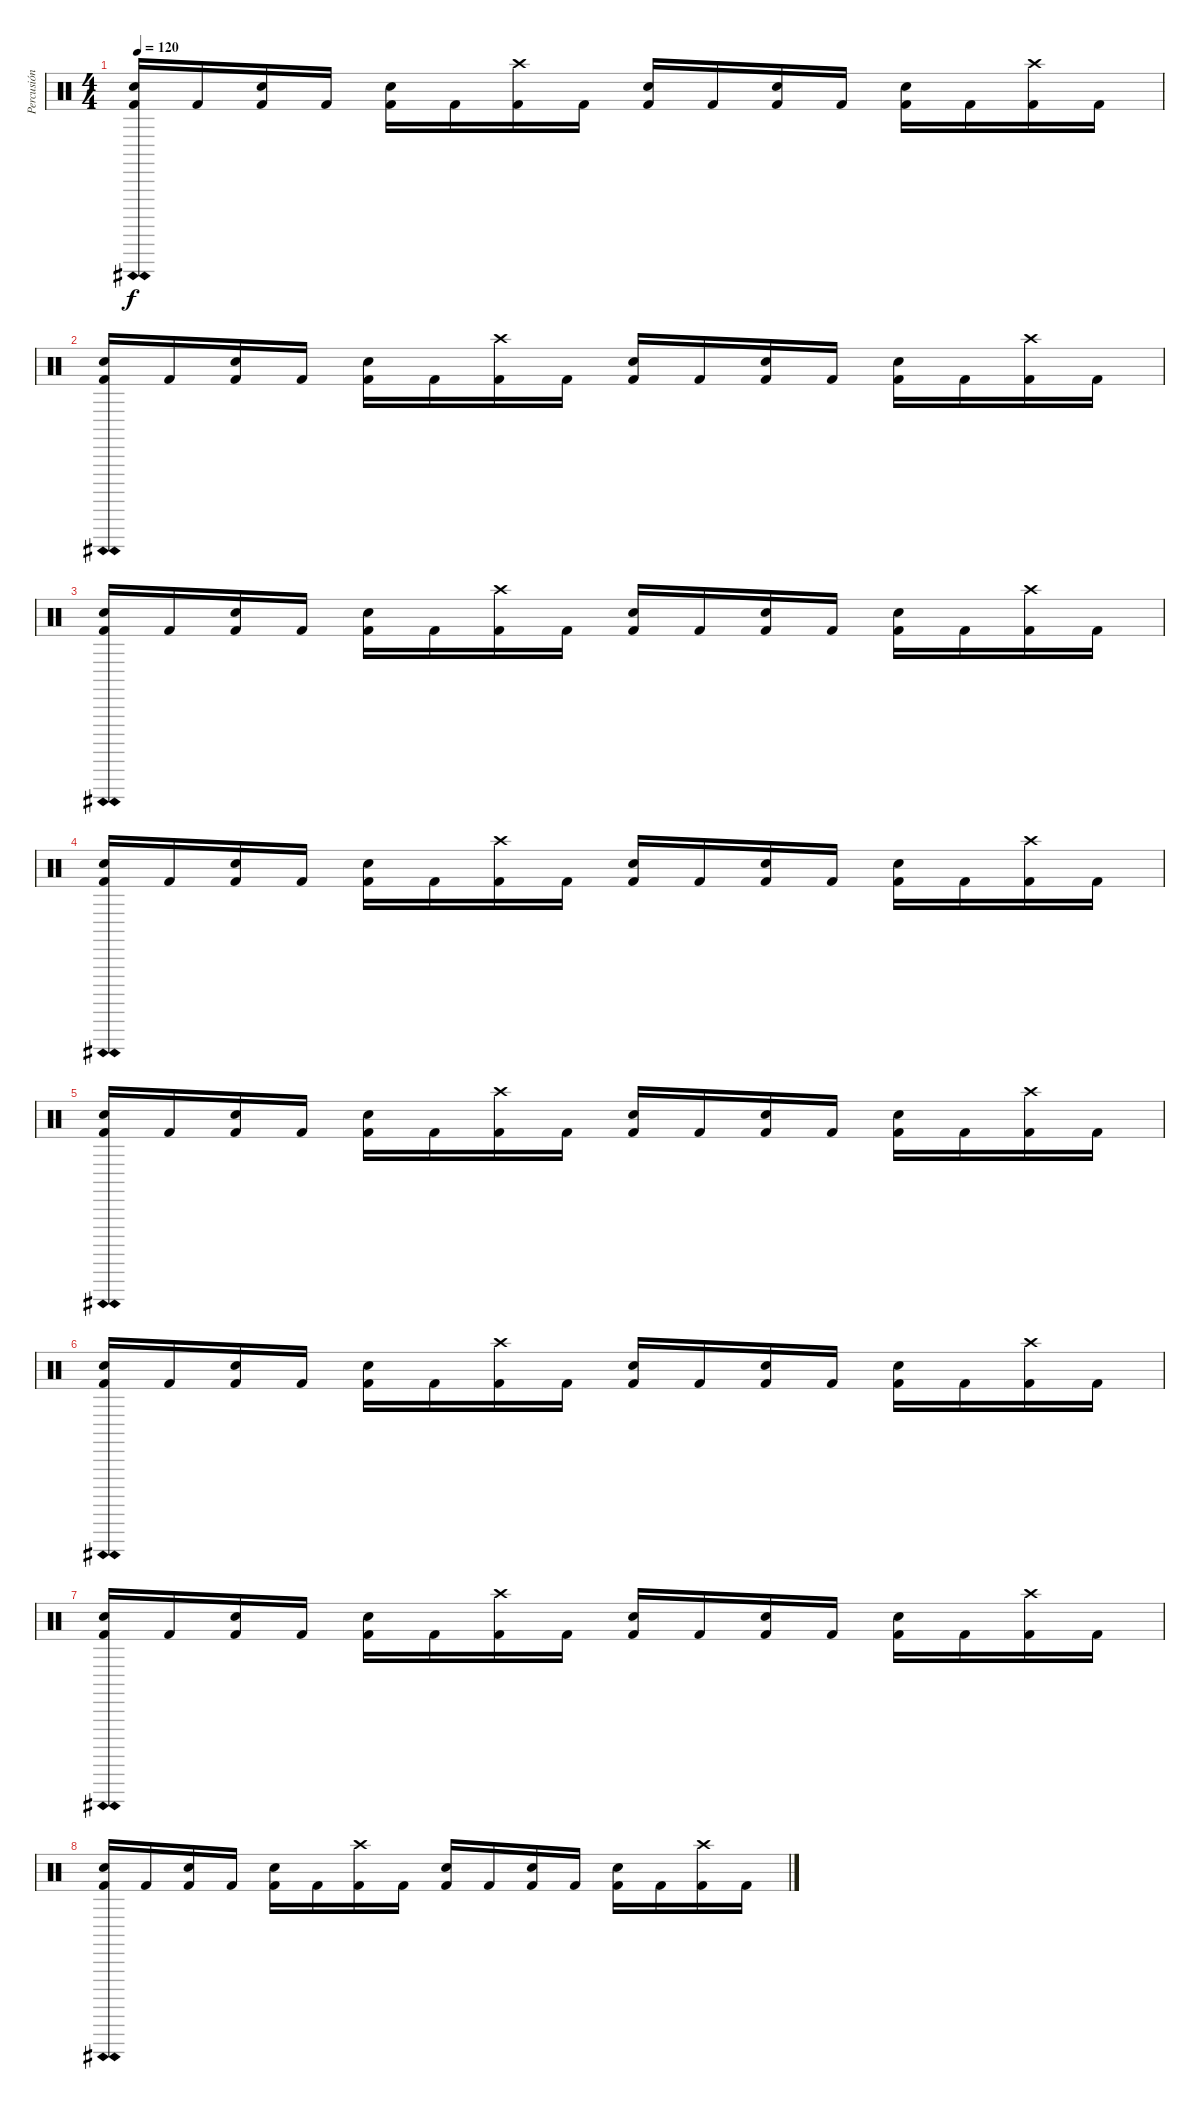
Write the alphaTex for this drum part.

\track ("Percusión" "Percusión") {instrument percussion}
\staff {score}
\articulation defaults
\ts (4 4)
\tempo 120
\clef neutral
\ks c
("Kick (hit) 2"{ah 12} "Electric Snare (hit)"{ah 12}).16{dy f} "Kick (hit) 2".16 ("Kick (hit) 2" "Electric Snare (hit)").16 "Kick (hit) 2".16 ("Kick (hit) 2" "Electric Snare (hit)").16 "Kick (hit) 2".16 ("Crash high (hit)" "Kick (hit) 2").16 "Kick (hit) 2".16 ("Kick (hit) 2" "Electric Snare (hit)").16 "Kick (hit) 2".16 ("Kick (hit) 2" "Electric Snare (hit)").16 "Kick (hit) 2".16 ("Kick (hit) 2" "Electric Snare (hit)").16 "Kick (hit) 2".16 ("Crash high (hit)" "Kick (hit) 2").16 "Kick (hit) 2".16 |
("Kick (hit) 2"{ah 12} "Electric Snare (hit)"{ah 12}).16 "Kick (hit) 2".16 ("Kick (hit) 2" "Electric Snare (hit)").16 "Kick (hit) 2".16 ("Kick (hit) 2" "Electric Snare (hit)").16 "Kick (hit) 2".16 ("Crash high (hit)" "Kick (hit) 2").16 "Kick (hit) 2".16 ("Kick (hit) 2" "Electric Snare (hit)").16 "Kick (hit) 2".16 ("Kick (hit) 2" "Electric Snare (hit)").16 "Kick (hit) 2".16 ("Kick (hit) 2" "Electric Snare (hit)").16 "Kick (hit) 2".16 ("Crash high (hit)" "Kick (hit) 2").16 "Kick (hit) 2".16 |
("Kick (hit) 2"{ah 12} "Electric Snare (hit)"{ah 12}).16 "Kick (hit) 2".16 ("Kick (hit) 2" "Electric Snare (hit)").16 "Kick (hit) 2".16 ("Kick (hit) 2" "Electric Snare (hit)").16 "Kick (hit) 2".16 ("Crash high (hit)" "Kick (hit) 2").16 "Kick (hit) 2".16 ("Kick (hit) 2" "Electric Snare (hit)").16 "Kick (hit) 2".16 ("Kick (hit) 2" "Electric Snare (hit)").16 "Kick (hit) 2".16 ("Kick (hit) 2" "Electric Snare (hit)").16 "Kick (hit) 2".16 ("Crash high (hit)" "Kick (hit) 2").16 "Kick (hit) 2".16 |
("Kick (hit) 2"{ah 12} "Electric Snare (hit)"{ah 12}).16 "Kick (hit) 2".16 ("Kick (hit) 2" "Electric Snare (hit)").16 "Kick (hit) 2".16 ("Kick (hit) 2" "Electric Snare (hit)").16 "Kick (hit) 2".16 ("Crash high (hit)" "Kick (hit) 2").16 "Kick (hit) 2".16 ("Kick (hit) 2" "Electric Snare (hit)").16 "Kick (hit) 2".16 ("Kick (hit) 2" "Electric Snare (hit)").16 "Kick (hit) 2".16 ("Kick (hit) 2" "Electric Snare (hit)").16 "Kick (hit) 2".16 ("Crash high (hit)" "Kick (hit) 2").16 "Kick (hit) 2".16 |
("Kick (hit) 2"{ah 12} "Electric Snare (hit)"{ah 12}).16 "Kick (hit) 2".16 ("Kick (hit) 2" "Electric Snare (hit)").16 "Kick (hit) 2".16 ("Kick (hit) 2" "Electric Snare (hit)").16 "Kick (hit) 2".16 ("Crash high (hit)" "Kick (hit) 2").16 "Kick (hit) 2".16 ("Kick (hit) 2" "Electric Snare (hit)").16 "Kick (hit) 2".16 ("Kick (hit) 2" "Electric Snare (hit)").16 "Kick (hit) 2".16 ("Kick (hit) 2" "Electric Snare (hit)").16 "Kick (hit) 2".16 ("Crash high (hit)" "Kick (hit) 2").16 "Kick (hit) 2".16 |
("Kick (hit) 2"{ah 12} "Electric Snare (hit)"{ah 12}).16 "Kick (hit) 2".16 ("Kick (hit) 2" "Electric Snare (hit)").16 "Kick (hit) 2".16 ("Kick (hit) 2" "Electric Snare (hit)").16 "Kick (hit) 2".16 ("Crash high (hit)" "Kick (hit) 2").16 "Kick (hit) 2".16 ("Kick (hit) 2" "Electric Snare (hit)").16 "Kick (hit) 2".16 ("Kick (hit) 2" "Electric Snare (hit)").16 "Kick (hit) 2".16 ("Kick (hit) 2" "Electric Snare (hit)").16 "Kick (hit) 2".16 ("Crash high (hit)" "Kick (hit) 2").16 "Kick (hit) 2".16 |
("Kick (hit) 2"{ah 12} "Electric Snare (hit)"{ah 12}).16 "Kick (hit) 2".16 ("Kick (hit) 2" "Electric Snare (hit)").16 "Kick (hit) 2".16 ("Kick (hit) 2" "Electric Snare (hit)").16 "Kick (hit) 2".16 ("Crash high (hit)" "Kick (hit) 2").16 "Kick (hit) 2".16 ("Kick (hit) 2" "Electric Snare (hit)").16 "Kick (hit) 2".16 ("Kick (hit) 2" "Electric Snare (hit)").16 "Kick (hit) 2".16 ("Kick (hit) 2" "Electric Snare (hit)").16 "Kick (hit) 2".16 ("Crash high (hit)" "Kick (hit) 2").16 "Kick (hit) 2".16 |
("Kick (hit) 2"{ah 12} "Electric Snare (hit)"{ah 12}).16 "Kick (hit) 2".16 ("Kick (hit) 2" "Electric Snare (hit)").16 "Kick (hit) 2".16 ("Kick (hit) 2" "Electric Snare (hit)").16 "Kick (hit) 2".16 ("Crash high (hit)" "Kick (hit) 2").16 "Kick (hit) 2".16 ("Kick (hit) 2" "Electric Snare (hit)").16 "Kick (hit) 2".16 ("Kick (hit) 2" "Electric Snare (hit)").16 "Kick (hit) 2".16 ("Kick (hit) 2" "Electric Snare (hit)").16 "Kick (hit) 2".16 ("Crash high (hit)" "Kick (hit) 2").16 "Kick (hit) 2".16
